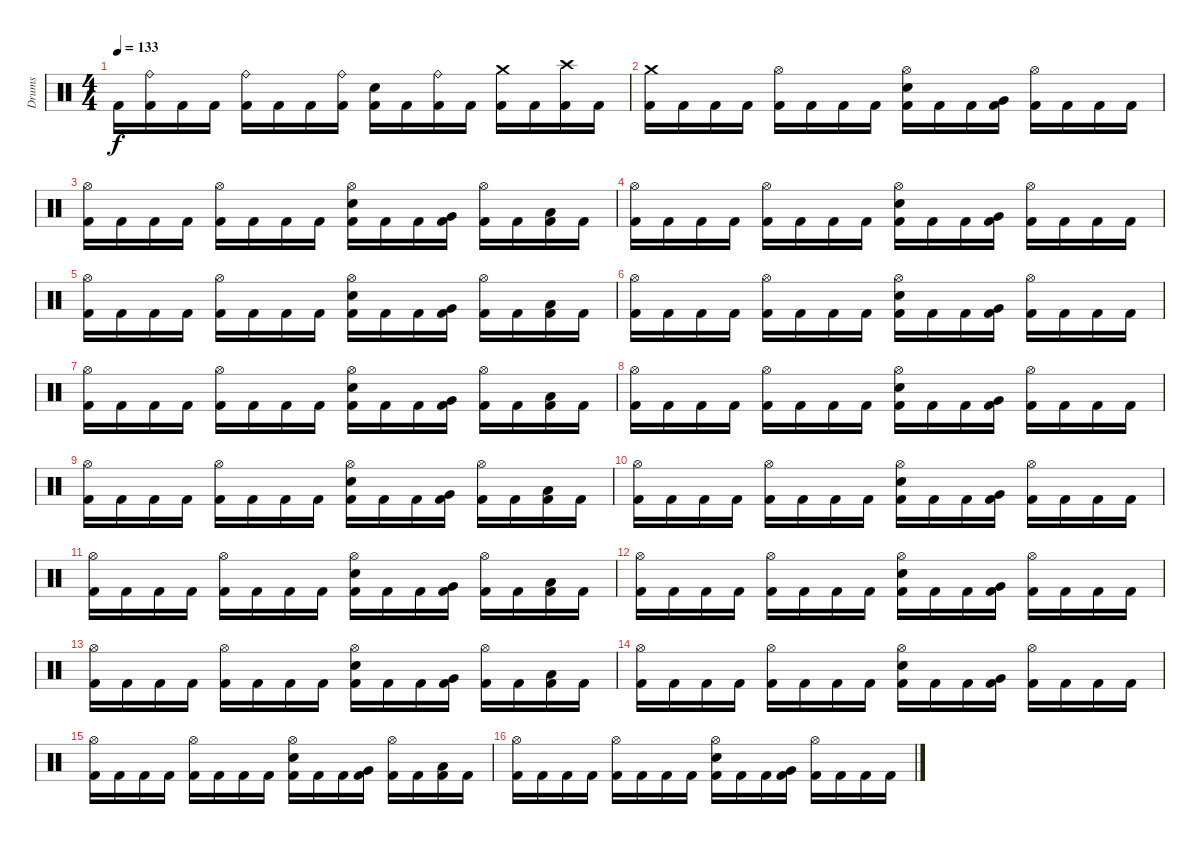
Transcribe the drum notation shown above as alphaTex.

\track ("Drums" "Drums") {instrument percussion}
\staff {score}
\articulation defaults
\ts (4 4)
\tempo 133
\clef neutral
\ks c "Kick (hit) 2".16{dy f}
("Ride (bell)" "Kick (hit) 2").16 "Kick (hit) 2".16 "Kick (hit) 2".16 ("Ride (bell)" "Kick (hit) 2").16 "Kick (hit) 2".16 "Kick (hit) 2".16 ("Ride (bell)" "Kick (hit) 2").16 ("Electric Snare (hit)" "Kick (hit) 2").16 "Kick (hit) 2".16 ("Ride (bell)" "Kick (hit) 2").16 "Kick (hit) 2".16 ("Crash medium (hit)" "Kick (hit) 2").16 "Kick (hit) 2".16 ("Crash high (hit)" "Kick (hit) 2").16 "Kick (hit) 2".16 |
\section ("" "")
("Crash medium (hit)" "Kick (hit) 2").16 "Kick (hit) 2".16 "Kick (hit) 2".16 "Kick (hit) 2".16 ("Hi-Hat (open)" "Kick (hit) 2").16 "Kick (hit) 2".16 "Kick (hit) 2".16 "Kick (hit) 2".16 ("Hi-Hat (open)" "Electric Snare (hit)" "Kick (hit) 2").16 "Kick (hit) 2".16 "Kick (hit) 2".16 ("Very Low Tom (hit)" "Kick (hit) 2").16 ("Hi-Hat (open)" "Kick (hit) 2").16 "Kick (hit) 2".16 "Kick (hit) 2".16 "Kick (hit) 2".16 |
("Hi-Hat (open)" "Kick (hit) 2").16 "Kick (hit) 2".16 "Kick (hit) 2".16 "Kick (hit) 2".16 ("Hi-Hat (open)" "Kick (hit) 2").16 "Kick (hit) 2".16 "Kick (hit) 2".16 "Kick (hit) 2".16 ("Hi-Hat (open)" "Electric Snare (hit)" "Kick (hit) 2").16 "Kick (hit) 2".16 "Kick (hit) 2".16 ("Very Low Tom (hit)" "Kick (hit) 2").16 ("Hi-Hat (open)" "Kick (hit) 2").16 "Kick (hit) 2".16 ("Low Floor Tom (hit)" "Kick (hit) 2").16 "Kick (hit) 2".16 |
("Hi-Hat (open)" "Kick (hit) 2").16 "Kick (hit) 2".16 "Kick (hit) 2".16 "Kick (hit) 2".16 ("Hi-Hat (open)" "Kick (hit) 2").16 "Kick (hit) 2".16 "Kick (hit) 2".16 "Kick (hit) 2".16 ("Hi-Hat (open)" "Electric Snare (hit)" "Kick (hit) 2").16 "Kick (hit) 2".16 "Kick (hit) 2".16 ("Very Low Tom (hit)" "Kick (hit) 2").16 ("Hi-Hat (open)" "Kick (hit) 2").16 "Kick (hit) 2".16 "Kick (hit) 2".16 "Kick (hit) 2".16 |
("Hi-Hat (open)" "Kick (hit) 2").16 "Kick (hit) 2".16 "Kick (hit) 2".16 "Kick (hit) 2".16 ("Hi-Hat (open)" "Kick (hit) 2").16 "Kick (hit) 2".16 "Kick (hit) 2".16 "Kick (hit) 2".16 ("Hi-Hat (open)" "Electric Snare (hit)" "Kick (hit) 2").16 "Kick (hit) 2".16 "Kick (hit) 2".16 ("Very Low Tom (hit)" "Kick (hit) 2").16 ("Hi-Hat (open)" "Kick (hit) 2").16 "Kick (hit) 2".16 ("Low Floor Tom (hit)" "Kick (hit) 2").16 "Kick (hit) 2".16 |
("Hi-Hat (open)" "Kick (hit) 2").16 "Kick (hit) 2".16 "Kick (hit) 2".16 "Kick (hit) 2".16 ("Hi-Hat (open)" "Kick (hit) 2").16 "Kick (hit) 2".16 "Kick (hit) 2".16 "Kick (hit) 2".16 ("Hi-Hat (open)" "Electric Snare (hit)" "Kick (hit) 2").16 "Kick (hit) 2".16 "Kick (hit) 2".16 ("Very Low Tom (hit)" "Kick (hit) 2").16 ("Hi-Hat (open)" "Kick (hit) 2").16 "Kick (hit) 2".16 "Kick (hit) 2".16 "Kick (hit) 2".16 |
("Hi-Hat (open)" "Kick (hit) 2").16 "Kick (hit) 2".16 "Kick (hit) 2".16 "Kick (hit) 2".16 ("Hi-Hat (open)" "Kick (hit) 2").16 "Kick (hit) 2".16 "Kick (hit) 2".16 "Kick (hit) 2".16 ("Hi-Hat (open)" "Electric Snare (hit)" "Kick (hit) 2").16 "Kick (hit) 2".16 "Kick (hit) 2".16 ("Very Low Tom (hit)" "Kick (hit) 2").16 ("Hi-Hat (open)" "Kick (hit) 2").16 "Kick (hit) 2".16 ("Low Floor Tom (hit)" "Kick (hit) 2").16 "Kick (hit) 2".16 |
("Hi-Hat (open)" "Kick (hit) 2").16 "Kick (hit) 2".16 "Kick (hit) 2".16 "Kick (hit) 2".16 ("Hi-Hat (open)" "Kick (hit) 2").16 "Kick (hit) 2".16 "Kick (hit) 2".16 "Kick (hit) 2".16 ("Hi-Hat (open)" "Electric Snare (hit)" "Kick (hit) 2").16 "Kick (hit) 2".16 "Kick (hit) 2".16 ("Very Low Tom (hit)" "Kick (hit) 2").16 ("Hi-Hat (open)" "Kick (hit) 2").16 "Kick (hit) 2".16 "Kick (hit) 2".16 "Kick (hit) 2".16 |
("Hi-Hat (open)" "Kick (hit) 2").16 "Kick (hit) 2".16 "Kick (hit) 2".16 "Kick (hit) 2".16 ("Hi-Hat (open)" "Kick (hit) 2").16 "Kick (hit) 2".16 "Kick (hit) 2".16 "Kick (hit) 2".16 ("Hi-Hat (open)" "Electric Snare (hit)" "Kick (hit) 2").16 "Kick (hit) 2".16 "Kick (hit) 2".16 ("Very Low Tom (hit)" "Kick (hit) 2").16 ("Hi-Hat (open)" "Kick (hit) 2").16 "Kick (hit) 2".16 ("Low Floor Tom (hit)" "Kick (hit) 2").16 "Kick (hit) 2".16 |
\section ("" "")
("Hi-Hat (open)" "Kick (hit) 2").16 "Kick (hit) 2".16 "Kick (hit) 2".16 "Kick (hit) 2".16 ("Hi-Hat (open)" "Kick (hit) 2").16 "Kick (hit) 2".16 "Kick (hit) 2".16 "Kick (hit) 2".16 ("Hi-Hat (open)" "Electric Snare (hit)" "Kick (hit) 2").16 "Kick (hit) 2".16 "Kick (hit) 2".16 ("Very Low Tom (hit)" "Kick (hit) 2").16 ("Hi-Hat (open)" "Kick (hit) 2").16 "Kick (hit) 2".16 "Kick (hit) 2".16 "Kick (hit) 2".16 |
("Hi-Hat (open)" "Kick (hit) 2").16 "Kick (hit) 2".16 "Kick (hit) 2".16 "Kick (hit) 2".16 ("Hi-Hat (open)" "Kick (hit) 2").16 "Kick (hit) 2".16 "Kick (hit) 2".16 "Kick (hit) 2".16 ("Hi-Hat (open)" "Electric Snare (hit)" "Kick (hit) 2").16 "Kick (hit) 2".16 "Kick (hit) 2".16 ("Very Low Tom (hit)" "Kick (hit) 2").16 ("Hi-Hat (open)" "Kick (hit) 2").16 "Kick (hit) 2".16 ("Low Floor Tom (hit)" "Kick (hit) 2").16 "Kick (hit) 2".16 |
("Hi-Hat (open)" "Kick (hit) 2").16 "Kick (hit) 2".16 "Kick (hit) 2".16 "Kick (hit) 2".16 ("Hi-Hat (open)" "Kick (hit) 2").16 "Kick (hit) 2".16 "Kick (hit) 2".16 "Kick (hit) 2".16 ("Hi-Hat (open)" "Electric Snare (hit)" "Kick (hit) 2").16 "Kick (hit) 2".16 "Kick (hit) 2".16 ("Very Low Tom (hit)" "Kick (hit) 2").16 ("Hi-Hat (open)" "Kick (hit) 2").16 "Kick (hit) 2".16 "Kick (hit) 2".16 "Kick (hit) 2".16 |
("Hi-Hat (open)" "Kick (hit) 2").16 "Kick (hit) 2".16 "Kick (hit) 2".16 "Kick (hit) 2".16 ("Hi-Hat (open)" "Kick (hit) 2").16 "Kick (hit) 2".16 "Kick (hit) 2".16 "Kick (hit) 2".16 ("Hi-Hat (open)" "Electric Snare (hit)" "Kick (hit) 2").16 "Kick (hit) 2".16 "Kick (hit) 2".16 ("Very Low Tom (hit)" "Kick (hit) 2").16 ("Hi-Hat (open)" "Kick (hit) 2").16 "Kick (hit) 2".16 ("Low Floor Tom (hit)" "Kick (hit) 2").16 "Kick (hit) 2".16 |
("Hi-Hat (open)" "Kick (hit) 2").16 "Kick (hit) 2".16 "Kick (hit) 2".16 "Kick (hit) 2".16 ("Hi-Hat (open)" "Kick (hit) 2").16 "Kick (hit) 2".16 "Kick (hit) 2".16 "Kick (hit) 2".16 ("Hi-Hat (open)" "Electric Snare (hit)" "Kick (hit) 2").16 "Kick (hit) 2".16 "Kick (hit) 2".16 ("Very Low Tom (hit)" "Kick (hit) 2").16 ("Hi-Hat (open)" "Kick (hit) 2").16 "Kick (hit) 2".16 "Kick (hit) 2".16 "Kick (hit) 2".16 |
("Hi-Hat (open)" "Kick (hit) 2").16 "Kick (hit) 2".16 "Kick (hit) 2".16 "Kick (hit) 2".16 ("Hi-Hat (open)" "Kick (hit) 2").16 "Kick (hit) 2".16 "Kick (hit) 2".16 "Kick (hit) 2".16 ("Hi-Hat (open)" "Electric Snare (hit)" "Kick (hit) 2").16 "Kick (hit) 2".16 "Kick (hit) 2".16 ("Very Low Tom (hit)" "Kick (hit) 2").16 ("Hi-Hat (open)" "Kick (hit) 2").16 "Kick (hit) 2".16 ("Low Floor Tom (hit)" "Kick (hit) 2").16 "Kick (hit) 2".16 |
("Hi-Hat (open)" "Kick (hit) 2").16 "Kick (hit) 2".16 "Kick (hit) 2".16 "Kick (hit) 2".16 ("Hi-Hat (open)" "Kick (hit) 2").16 "Kick (hit) 2".16 "Kick (hit) 2".16 "Kick (hit) 2".16 ("Hi-Hat (open)" "Electric Snare (hit)" "Kick (hit) 2").16 "Kick (hit) 2".16 "Kick (hit) 2".16 ("Very Low Tom (hit)" "Kick (hit) 2").16 ("Hi-Hat (open)" "Kick (hit) 2").16 "Kick (hit) 2".16 "Kick (hit) 2".16 "Kick (hit) 2".16
